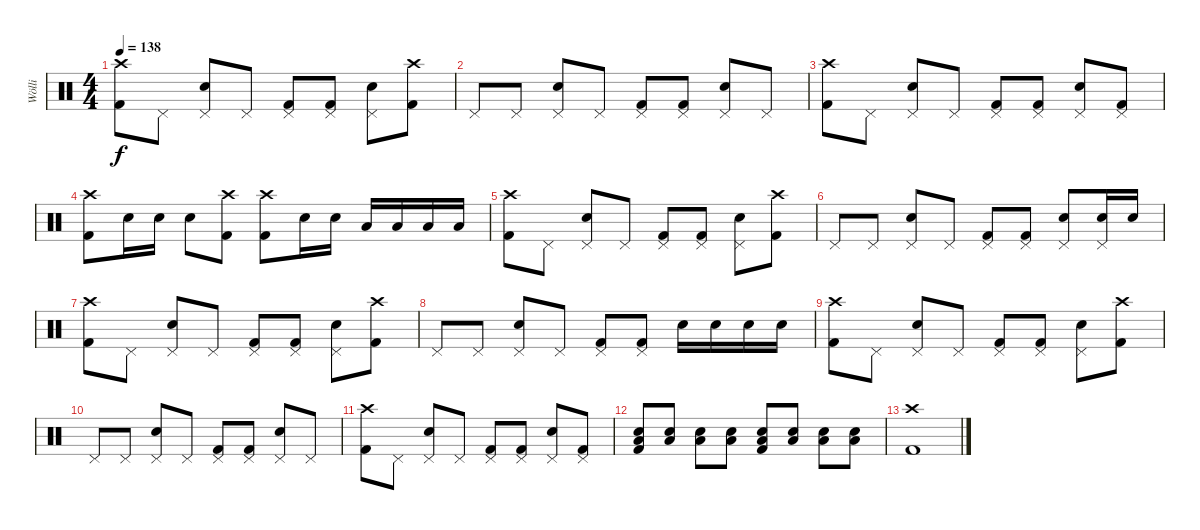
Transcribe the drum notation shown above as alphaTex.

\track ("Wölli" "Wölli") {instrument percussion}
\staff {score}
\articulation defaults
\ts (4 4)
\tempo 138
\clef neutral
\ks c
("Crash high (hit)" "Kick (hit) 2").8{dy f} "Pedal Hi-Hat (hit)".8 ("Pedal Hi-Hat (hit)" "Snare (hit) 2").8 "Pedal Hi-Hat (hit)".8 ("Pedal Hi-Hat (hit)" "Kick (hit) 2").8 ("Pedal Hi-Hat (hit)" "Kick (hit) 2").8 ("Pedal Hi-Hat (hit)" "Snare (hit) 2").8 ("Crash high (hit)" "Kick (hit) 2").8 |
"Pedal Hi-Hat (hit)".8 "Pedal Hi-Hat (hit)".8 ("Pedal Hi-Hat (hit)" "Snare (hit) 2").8 "Pedal Hi-Hat (hit)".8 ("Pedal Hi-Hat (hit)" "Kick (hit) 2").8 ("Pedal Hi-Hat (hit)" "Kick (hit) 2").8 ("Pedal Hi-Hat (hit)" "Snare (hit) 2").8 "Pedal Hi-Hat (hit)".8 |
("Crash high (hit)" "Kick (hit) 2").8 "Pedal Hi-Hat (hit)".8 ("Pedal Hi-Hat (hit)" "Snare (hit) 2").8 "Pedal Hi-Hat (hit)".8 ("Pedal Hi-Hat (hit)" "Kick (hit) 2").8 ("Pedal Hi-Hat (hit)" "Kick (hit) 2").8 ("Pedal Hi-Hat (hit)" "Snare (hit) 2").8 ("Pedal Hi-Hat (hit)" "Kick (hit) 2").8 |
("Crash high (hit)" "Kick (hit) 2").8 "Snare (hit) 2".16 "Snare (hit) 2".16 "Snare (hit) 2".8 ("Crash high (hit)" "Kick (hit) 2").8 ("Crash high (hit)" "Kick (hit) 2").8 "Snare (hit) 2".16 "Snare (hit) 2".16 "Low Tom (hit)".16 "Low Tom (hit)".16 "Low Tom (hit)".16 "Low Tom (hit)".16 |
("Crash high (hit)" "Kick (hit) 2").8 "Pedal Hi-Hat (hit)".8 ("Pedal Hi-Hat (hit)" "Snare (hit) 2").8 "Pedal Hi-Hat (hit)".8 ("Pedal Hi-Hat (hit)" "Kick (hit) 2").8 ("Pedal Hi-Hat (hit)" "Kick (hit) 2").8 ("Pedal Hi-Hat (hit)" "Snare (hit) 2").8 ("Crash high (hit)" "Kick (hit) 2").8 |
"Pedal Hi-Hat (hit)".8 "Pedal Hi-Hat (hit)".8 ("Pedal Hi-Hat (hit)" "Snare (hit) 2").8 "Pedal Hi-Hat (hit)".8 ("Pedal Hi-Hat (hit)" "Kick (hit) 2").8 ("Pedal Hi-Hat (hit)" "Kick (hit) 2").8 ("Pedal Hi-Hat (hit)" "Snare (hit) 2").8 ("Pedal Hi-Hat (hit)" "Snare (hit) 2").16 "Snare (hit) 2".16 |
("Crash high (hit)" "Kick (hit) 2").8 "Pedal Hi-Hat (hit)".8 ("Pedal Hi-Hat (hit)" "Snare (hit) 2").8 "Pedal Hi-Hat (hit)".8 ("Pedal Hi-Hat (hit)" "Kick (hit) 2").8 ("Pedal Hi-Hat (hit)" "Kick (hit) 2").8 ("Pedal Hi-Hat (hit)" "Snare (hit) 2").8 ("Crash high (hit)" "Kick (hit) 2").8 |
"Pedal Hi-Hat (hit)".8 "Pedal Hi-Hat (hit)".8 ("Pedal Hi-Hat (hit)" "Snare (hit) 2").8 "Pedal Hi-Hat (hit)".8 ("Pedal Hi-Hat (hit)" "Kick (hit) 2").8 ("Pedal Hi-Hat (hit)" "Kick (hit) 2").8 "Snare (hit) 2".16 "Snare (hit) 2".16 "Snare (hit) 2".16 "Snare (hit) 2".16 |
("Crash high (hit)" "Kick (hit) 2").8 "Pedal Hi-Hat (hit)".8 ("Pedal Hi-Hat (hit)" "Snare (hit) 2").8 "Pedal Hi-Hat (hit)".8 ("Pedal Hi-Hat (hit)" "Kick (hit) 2").8 ("Pedal Hi-Hat (hit)" "Kick (hit) 2").8 ("Pedal Hi-Hat (hit)" "Snare (hit) 2").8 ("Crash high (hit)" "Kick (hit) 2").8 |
"Pedal Hi-Hat (hit)".8 "Pedal Hi-Hat (hit)".8 ("Pedal Hi-Hat (hit)" "Snare (hit) 2").8 "Pedal Hi-Hat (hit)".8 ("Pedal Hi-Hat (hit)" "Kick (hit) 2").8 ("Pedal Hi-Hat (hit)" "Kick (hit) 2").8 ("Pedal Hi-Hat (hit)" "Snare (hit) 2").8 "Pedal Hi-Hat (hit)".8 |
("Crash high (hit)" "Kick (hit) 2").8 "Pedal Hi-Hat (hit)".8 ("Pedal Hi-Hat (hit)" "Snare (hit) 2").8 "Pedal Hi-Hat (hit)".8 ("Pedal Hi-Hat (hit)" "Kick (hit) 2").8 ("Pedal Hi-Hat (hit)" "Kick (hit) 2").8 ("Pedal Hi-Hat (hit)" "Snare (hit) 2").8 ("Pedal Hi-Hat (hit)" "Kick (hit) 2").8 |
("Low Floor Tom (hit)" "Snare (hit) 2" "Kick (hit) 2").8 ("Low Floor Tom (hit)" "Snare (hit) 2").8 ("Low Floor Tom (hit)" "Snare (hit) 2").8 ("Low Floor Tom (hit)" "Snare (hit) 2").8 ("Low Tom (hit)" "Snare (hit) 2" "Kick (hit) 2").8 ("Low Tom (hit)" "Snare (hit) 2").8 ("Low Tom (hit)" "Snare (hit) 2").8 ("Low Tom (hit)" "Snare (hit) 2").8 |
("Crash high (hit)" "Kick (hit) 2").1
